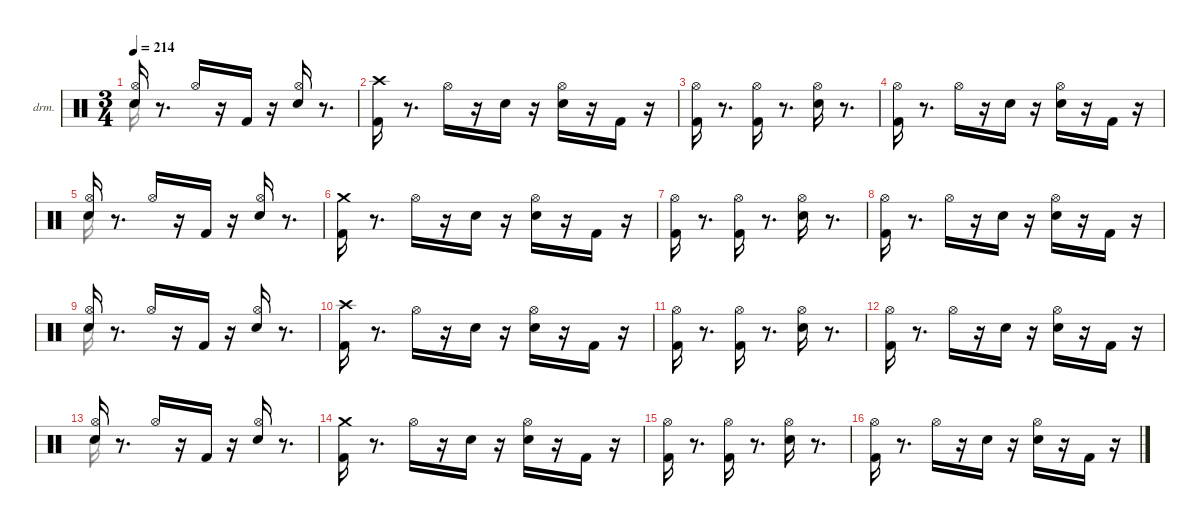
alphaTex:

\hideDynamics
\bracketExtendMode nobrackets
\firstSystemTrackNameOrientation horizontal
\track ("EZdrummer 3" "drm.") {instrument percussion}
\staff {score}
\articulation defaults
\voice
\ts (3 4)
\tempo 214
\clef neutral
\ks aminor
("Snare (hit) 2" "Hi-Hat (open)"{acc #}).16{dy pp} r.8{d} "Hi-Hat (open)"{acc #}.16{dy f} r.16 "Kick (hit) 2".16{dy mp} r.16 ("Snare (hit) 2" "Hi-Hat (open)"{acc #}).16{dy ff} r.8{d} |
("Kick (hit) 2" "Crash high (hit)"{acc #}).16 r.8{d} "Hi-Hat (open)"{acc #}.16{dy mf} r.16 "Snare (hit) 2".16{dy f} r.16 ("Snare (hit) 2" "Hi-Hat (open)"{acc #}).16 r.16 "Kick (hit) 2".16{dy mp} r.16 |
("Kick (hit) 2" "Hi-Hat (open)"{acc #}).16{dy f} r.8{d} ("Kick (hit) 2" "Hi-Hat (open)"{acc #}).16{dy mf} r.8{d} ("Snare (hit) 2" "Hi-Hat (open)"{acc #}).16{dy f} r.8{d} |
("Kick (hit) 2" "Hi-Hat (open)"{acc #}).16{dy mf} r.8{d} "Hi-Hat (open)"{acc #}.16{dy mp} r.16 "Snare (hit) 2".16{dy f} r.16 ("Snare (hit) 2" "Hi-Hat (open)"{acc #}).16{dy p} r.16 "Kick (hit) 2".16{dy mf} r.16 |
("Snare (hit) 2" "Hi-Hat (open)"{acc #}).16{dy pp} r.8{d} "Hi-Hat (open)"{acc #}.16{dy f} r.16 "Kick (hit) 2".16{dy mp} r.16 ("Snare (hit) 2" "Hi-Hat (open)"{acc #}).16 r.8{d} |
("Kick (hit) 2" "Crash medium (hit)").16{dy ff} r.8{d} "Hi-Hat (open)"{acc #}.16{dy mf} r.16 "Snare (hit) 2".16{dy f} r.16 ("Snare (hit) 2" "Hi-Hat (open)"{acc #}).16{dy p} r.16 "Kick (hit) 2".16{dy mp} r.16 |
("Kick (hit) 2" "Hi-Hat (open)"{acc #}).16{dy f} r.8{d} ("Kick (hit) 2" "Hi-Hat (open)"{acc #}).16{dy mf} r.8{d} ("Snare (hit) 2" "Hi-Hat (open)"{acc #}).16{dy f} r.8{d} |
("Kick (hit) 2" "Hi-Hat (open)"{acc #}).16{dy mf} r.8{d} "Hi-Hat (open)"{acc #}.16{dy mp} r.16 "Snare (hit) 2".16{dy f} r.16 ("Snare (hit) 2" "Hi-Hat (open)"{acc #}).16{dy p} r.16 "Kick (hit) 2".16{dy mf} r.16 |
("Snare (hit) 2" "Hi-Hat (open)"{acc #}).16{dy pp} r.8{d} "Hi-Hat (open)"{acc #}.16{dy f} r.16 "Kick (hit) 2".16{dy mp} r.16 ("Snare (hit) 2" "Hi-Hat (open)"{acc #}).16{dy ff} r.8{d} |
("Kick (hit) 2" "Crash high (hit)"{acc #}).16{dy fff} r.8{d} "Hi-Hat (open)"{acc #}.16{dy mf} r.16 "Snare (hit) 2".16{dy f} r.16 ("Snare (hit) 2" "Hi-Hat (open)"{acc #}).16{dy p} r.16 "Kick (hit) 2".16{dy mp} r.16 |
("Kick (hit) 2" "Hi-Hat (open)"{acc #}).16{dy f} r.8{d} ("Kick (hit) 2" "Hi-Hat (open)"{acc #}).16{dy mf} r.8{d} ("Snare (hit) 2" "Hi-Hat (open)"{acc #}).16{dy mp} r.8{d} |
("Kick (hit) 2" "Hi-Hat (open)"{acc #}).16{dy ff} r.8{d} "Hi-Hat (open)"{acc #}.16{dy mp} r.16 "Snare (hit) 2".16{dy f} r.16 ("Snare (hit) 2" "Hi-Hat (open)"{acc #}).16{dy p} r.16 "Kick (hit) 2".16{dy mf} r.16 |
("Snare (hit) 2" "Hi-Hat (open)"{acc #}).16{dy pp} r.8{d} "Hi-Hat (open)"{acc #}.16{dy f} r.16 "Kick (hit) 2".16{dy mp} r.16 ("Snare (hit) 2" "Hi-Hat (open)"{acc #}).16{dy ff} r.8{d} |
("Kick (hit) 2" "Crash medium (hit)").16 r.8{d} "Hi-Hat (open)"{acc #}.16{dy mf} r.16 "Snare (hit) 2".16{dy f} r.16 ("Snare (hit) 2" "Hi-Hat (open)"{acc #}).16{dy p} r.16 "Kick (hit) 2".16{dy mp} r.16 |
("Kick (hit) 2" "Hi-Hat (open)"{acc #}).16 r.8{d} ("Kick (hit) 2" "Hi-Hat (open)"{acc #}).16{dy f} r.8{d} ("Snare (hit) 2" "Hi-Hat (open)"{acc #}).16{dy mp} r.8{d} |
("Kick (hit) 2" "Hi-Hat (open)"{acc #}).16{dy mf} r.8{d} "Hi-Hat (open)"{acc #}.16{dy mp} r.16 "Snare (hit) 2".16{dy f} r.16 ("Snare (hit) 2" "Hi-Hat (open)"{acc #}).16{dy p} r.16 "Kick (hit) 2".16{dy mf} r.16
\voice
\clef neutral
\ottava regular
\simile none
\ks aminor "Snare (hit) 2".16{dy ff}
|
|
|
|
"Snare (hit) 2".16 |
|
|
|
"Snare (hit) 2".16 |
|
|
|
"Snare (hit) 2".16 |
|
|
